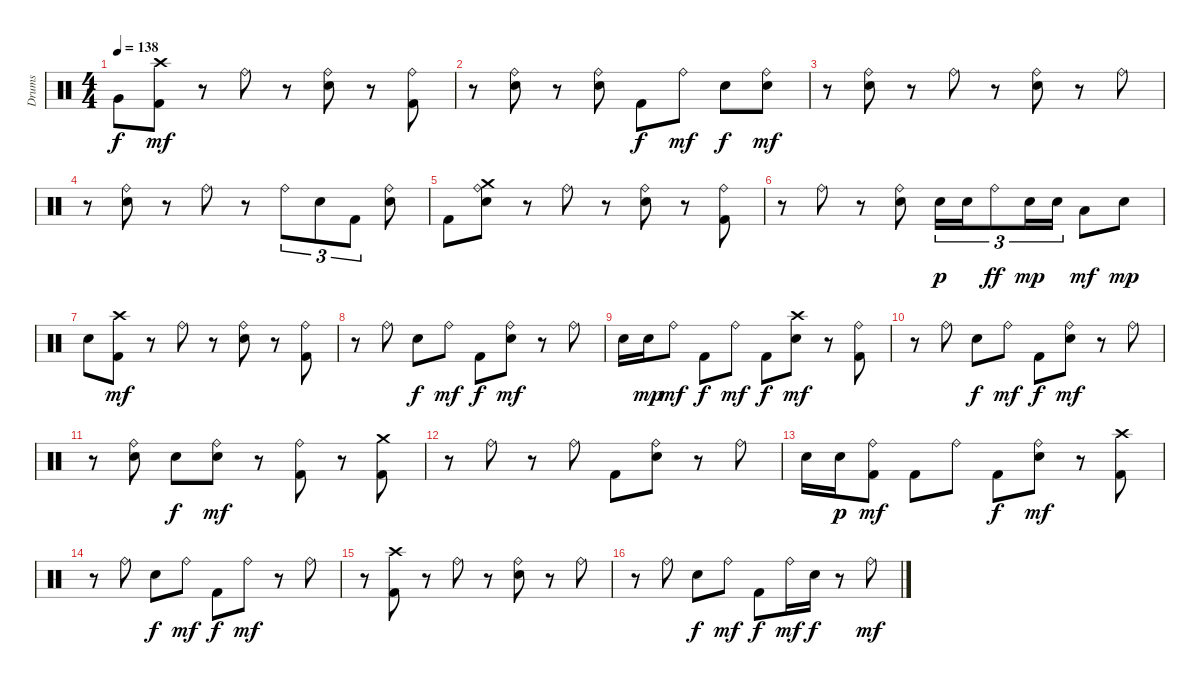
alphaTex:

\track ("Drums" "Drums") {instrument percussion}
\staff {score}
\articulation defaults
\ts (4 4)
\tempo 138
\clef neutral
\ks c "Very Low Tom (hit)".8{dy f}
("Kick (hit) 2" "Crash high (hit)").8{dy mf} r.8 "Ride (bell)".8 r.8 ("Electric Snare (hit)" "Ride (bell)").8 r.8 ("Kick (hit) 2" "Ride (bell)").8 |
r.8 ("Electric Snare (hit)" "Ride (bell)").8 r.8 ("Electric Snare (hit)" "Ride (bell)").8 "Kick (hit) 2".8{dy f} "Ride (bell)".8{dy mf} "Electric Snare (hit)".8{dy f} ("Electric Snare (hit)" "Ride (bell)").8{dy mf} |
r.8 ("Electric Snare (hit)" "Ride (bell)").8 r.8 "Ride (bell)".8 r.8 ("Electric Snare (hit)" "Ride (bell)").8 r.8 "Ride (bell)".8 |
r.8 ("Electric Snare (hit)" "Ride (bell)").8 r.8 "Ride (bell)".8 r.8 "Ride (bell)".8{tu (3 2)} "Electric Snare (hit)".8{tu (3 2)} "Kick (hit) 2".8{tu (3 2)} ("Electric Snare (hit)" "Ride (bell)").8 |
"Kick (hit) 2".8 ("Electric Snare (hit)" "Ride (bell)" "Crash medium (hit)").8 r.8 "Ride (bell)".8 r.8 ("Electric Snare (hit)" "Ride (bell)").8 r.8 ("Kick (hit) 2" "Ride (bell)").8 |
r.8 "Ride (bell)".8 r.8 ("Electric Snare (hit)" "Ride (bell)").8 "Electric Snare (hit)".16{tu (3 2) dy p} "Electric Snare (hit)".16{tu (3 2)} "Ride (bell)".8{tu (3 2) dy ff} "Electric Snare (hit)".16{tu (3 2) dy mp} "Electric Snare (hit)".16{tu (3 2)} "Low Tom (hit)".8{dy mf} "Electric Snare (hit)".8{dy mp} |
"Electric Snare (hit)".8 ("Kick (hit) 2" "Crash high (hit)").8{dy mf} r.8 "Ride (bell)".8 r.8 ("Electric Snare (hit)" "Ride (bell)").8 r.8 ("Kick (hit) 2" "Ride (bell)").8 |
r.8 "Ride (bell)".8 "Electric Snare (hit)".8{dy f} "Ride (bell)".8{dy mf} "Kick (hit) 2".8{dy f} ("Electric Snare (hit)" "Ride (bell)").8{dy mf} r.8 "Ride (bell)".8 |
"Electric Snare (hit)".16 "Electric Snare (hit)".16{dy mp} "Ride (bell)".8{dy mf} "Kick (hit) 2".8{dy f} "Ride (bell)".8{dy mf} "Kick (hit) 2".8{dy f} ("Electric Snare (hit)" "Crash high (hit)").8{dy mf} r.8 ("Kick (hit) 2" "Ride (bell)").8 |
r.8 "Ride (bell)".8 "Electric Snare (hit)".8{dy f} "Ride (bell)".8{dy mf} "Kick (hit) 2".8{dy f} ("Electric Snare (hit)" "Ride (bell)").8{dy mf} r.8 "Ride (bell)".8 |
r.8 ("Electric Snare (hit)" "Ride (bell)").8 "Electric Snare (hit)".8{dy f} ("Electric Snare (hit)" "Ride (bell)").8{dy mf} r.8 ("Kick (hit) 2" "Ride (bell)").8 r.8 ("Kick (hit) 2" "Crash medium (hit)").8 |
r.8 "Ride (bell)".8 r.8 "Ride (bell)".8 "Kick (hit) 2".8 ("Electric Snare (hit)" "Ride (bell)").8 r.8 "Ride (bell)".8 |
"Electric Snare (hit)".16 "Electric Snare (hit)".16{dy p} ("Kick (hit) 2" "Ride (bell)").8{dy mf} "Kick (hit) 2".8 "Ride (bell)".8 "Kick (hit) 2".8{dy f} ("Electric Snare (hit)" "Ride (bell)").8{dy mf} r.8 ("Kick (hit) 2" "Crash high (hit)").8 |
r.8 "Ride (bell)".8 "Electric Snare (hit)".8{dy f} "Ride (bell)".8{dy mf} "Kick (hit) 2".8{dy f} "Ride (bell)".8{dy mf} r.8 "Ride (bell)".8 |
r.8 ("Kick (hit) 2" "Crash high (hit)").8 r.8 "Ride (bell)".8 r.8 ("Electric Snare (hit)" "Ride (bell)").8 r.8 "Ride (bell)".8 |
r.8 "Ride (bell)".8 "Electric Snare (hit)".8{dy f} "Ride (bell)".8{dy mf} "Kick (hit) 2".8{dy f} "Ride (bell)".16{dy mf} "Electric Snare (hit)".16{dy f} r.8 "Ride (bell)".8{dy mf}
